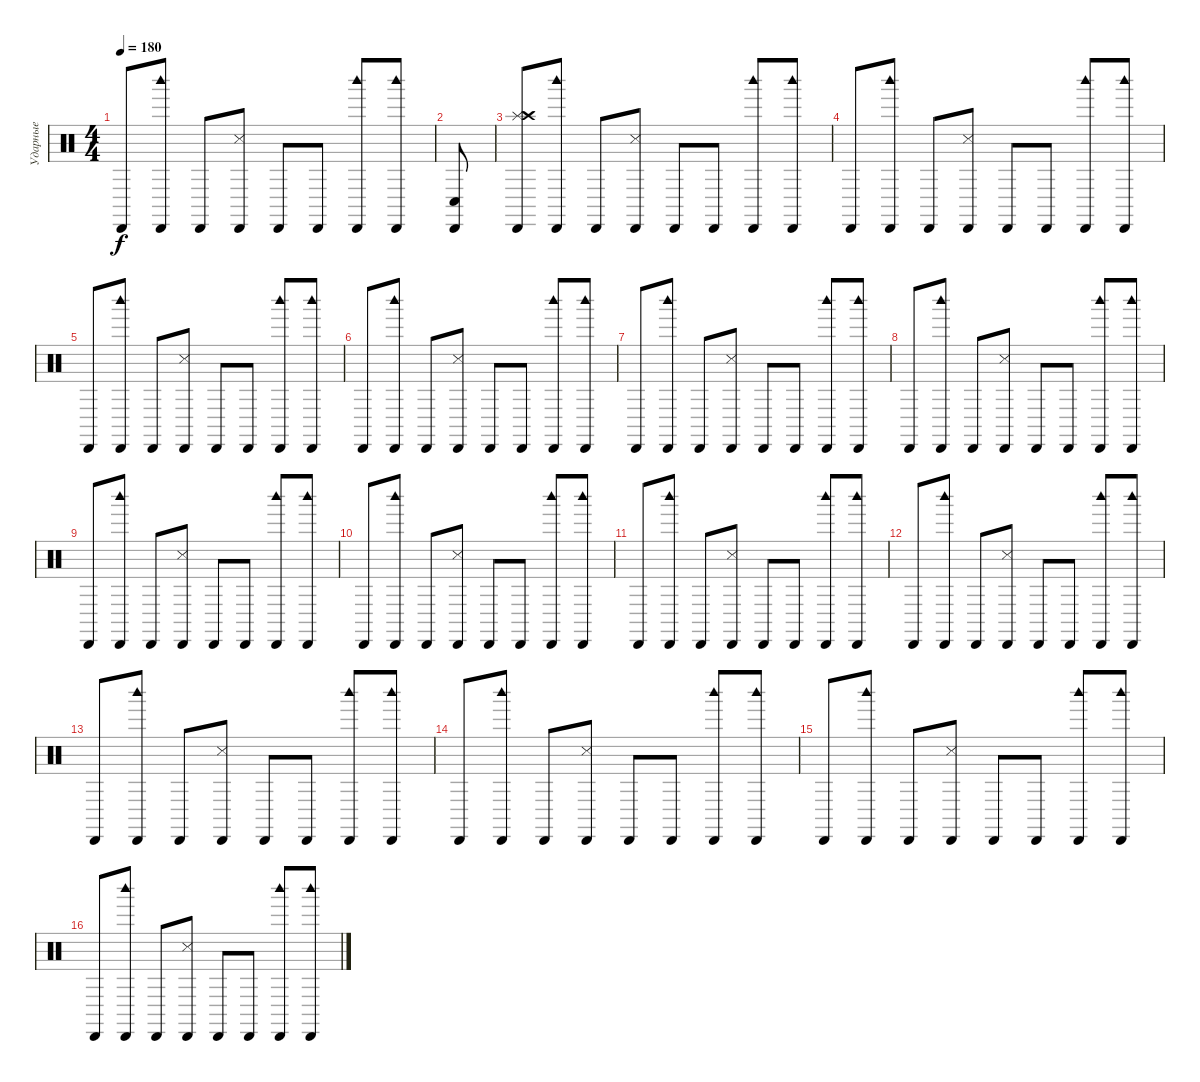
\track ("Ударные" "Ударные") {instrument percussion}
\staff {score}
\articulation defaults
\ts (4 4)
\tempo 180
\clef neutral
\ks c "Cabasa (hit)".8{dy f}
("Woodblock high (hit)" "Cabasa (hit)").8 "Cabasa (hit)".8 ("Cabasa (hit)" "Snare (side stick) 3").8 "Cabasa (hit)".8 "Cabasa (hit)".8 ("Woodblock high (hit)" "Cabasa (hit)").8 ("Woodblock high (hit)" "Cabasa (hit)").8 |
("Cabasa (hit)" "Conga low (hit)").8 |
("Splash (hit)" "Cabasa (hit)" "Crash high (hit)").8 ("Woodblock high (hit)" "Cabasa (hit)").8 "Cabasa (hit)".8 ("Cabasa (hit)" "Snare (side stick) 3").8 "Cabasa (hit)".8 "Cabasa (hit)".8 ("Woodblock high (hit)" "Cabasa (hit)").8 ("Woodblock high (hit)" "Cabasa (hit)").8 |
"Cabasa (hit)".8 ("Woodblock high (hit)" "Cabasa (hit)").8 "Cabasa (hit)".8 ("Cabasa (hit)" "Snare (side stick) 3").8 "Cabasa (hit)".8 "Cabasa (hit)".8 ("Woodblock high (hit)" "Cabasa (hit)").8 ("Woodblock high (hit)" "Cabasa (hit)").8 |
"Cabasa (hit)".8 ("Woodblock high (hit)" "Cabasa (hit)").8 "Cabasa (hit)".8 ("Cabasa (hit)" "Snare (side stick) 3").8 "Cabasa (hit)".8 "Cabasa (hit)".8 ("Woodblock high (hit)" "Cabasa (hit)").8 ("Woodblock high (hit)" "Cabasa (hit)").8 |
"Cabasa (hit)".8 ("Woodblock high (hit)" "Cabasa (hit)").8 "Cabasa (hit)".8 ("Cabasa (hit)" "Snare (side stick) 3").8 "Cabasa (hit)".8 "Cabasa (hit)".8 ("Woodblock high (hit)" "Cabasa (hit)").8 ("Woodblock high (hit)" "Cabasa (hit)").8 |
"Cabasa (hit)".8 ("Woodblock high (hit)" "Cabasa (hit)").8 "Cabasa (hit)".8 ("Cabasa (hit)" "Snare (side stick) 3").8 "Cabasa (hit)".8 "Cabasa (hit)".8 ("Woodblock high (hit)" "Cabasa (hit)").8 ("Woodblock high (hit)" "Cabasa (hit)").8 |
"Cabasa (hit)".8 ("Woodblock high (hit)" "Cabasa (hit)").8 "Cabasa (hit)".8 ("Cabasa (hit)" "Snare (side stick) 3").8 "Cabasa (hit)".8 "Cabasa (hit)".8 ("Woodblock high (hit)" "Cabasa (hit)").8 ("Woodblock high (hit)" "Cabasa (hit)").8 |
"Cabasa (hit)".8 ("Woodblock high (hit)" "Cabasa (hit)").8 "Cabasa (hit)".8 ("Cabasa (hit)" "Snare (side stick) 3").8 "Cabasa (hit)".8 "Cabasa (hit)".8 ("Woodblock high (hit)" "Cabasa (hit)").8 ("Woodblock high (hit)" "Cabasa (hit)").8 |
"Cabasa (hit)".8 ("Woodblock high (hit)" "Cabasa (hit)").8 "Cabasa (hit)".8 ("Cabasa (hit)" "Snare (side stick) 3").8 "Cabasa (hit)".8 "Cabasa (hit)".8 ("Woodblock high (hit)" "Cabasa (hit)").8 ("Woodblock high (hit)" "Cabasa (hit)").8 |
"Cabasa (hit)".8 ("Woodblock high (hit)" "Cabasa (hit)").8 "Cabasa (hit)".8 ("Cabasa (hit)" "Snare (side stick) 3").8 "Cabasa (hit)".8 "Cabasa (hit)".8 ("Woodblock high (hit)" "Cabasa (hit)").8 ("Woodblock high (hit)" "Cabasa (hit)").8 |
"Cabasa (hit)".8 ("Woodblock high (hit)" "Cabasa (hit)").8 "Cabasa (hit)".8 ("Cabasa (hit)" "Snare (side stick) 3").8 "Cabasa (hit)".8 "Cabasa (hit)".8 ("Woodblock high (hit)" "Cabasa (hit)").8 ("Woodblock high (hit)" "Cabasa (hit)").8 |
"Cabasa (hit)".8 ("Woodblock high (hit)" "Cabasa (hit)").8 "Cabasa (hit)".8 ("Cabasa (hit)" "Snare (side stick) 3").8 "Cabasa (hit)".8 "Cabasa (hit)".8 ("Woodblock high (hit)" "Cabasa (hit)").8 ("Woodblock high (hit)" "Cabasa (hit)").8 |
"Cabasa (hit)".8 ("Woodblock high (hit)" "Cabasa (hit)").8 "Cabasa (hit)".8 ("Cabasa (hit)" "Snare (side stick) 3").8 "Cabasa (hit)".8 "Cabasa (hit)".8 ("Woodblock high (hit)" "Cabasa (hit)").8 ("Woodblock high (hit)" "Cabasa (hit)").8 |
"Cabasa (hit)".8 ("Woodblock high (hit)" "Cabasa (hit)").8 "Cabasa (hit)".8 ("Cabasa (hit)" "Snare (side stick) 3").8 "Cabasa (hit)".8 "Cabasa (hit)".8 ("Woodblock high (hit)" "Cabasa (hit)").8 ("Woodblock high (hit)" "Cabasa (hit)").8 |
"Cabasa (hit)".8 ("Woodblock high (hit)" "Cabasa (hit)").8 "Cabasa (hit)".8 ("Cabasa (hit)" "Snare (side stick) 3").8 "Cabasa (hit)".8 "Cabasa (hit)".8 ("Woodblock high (hit)" "Cabasa (hit)").8 ("Woodblock high (hit)" "Cabasa (hit)").8
